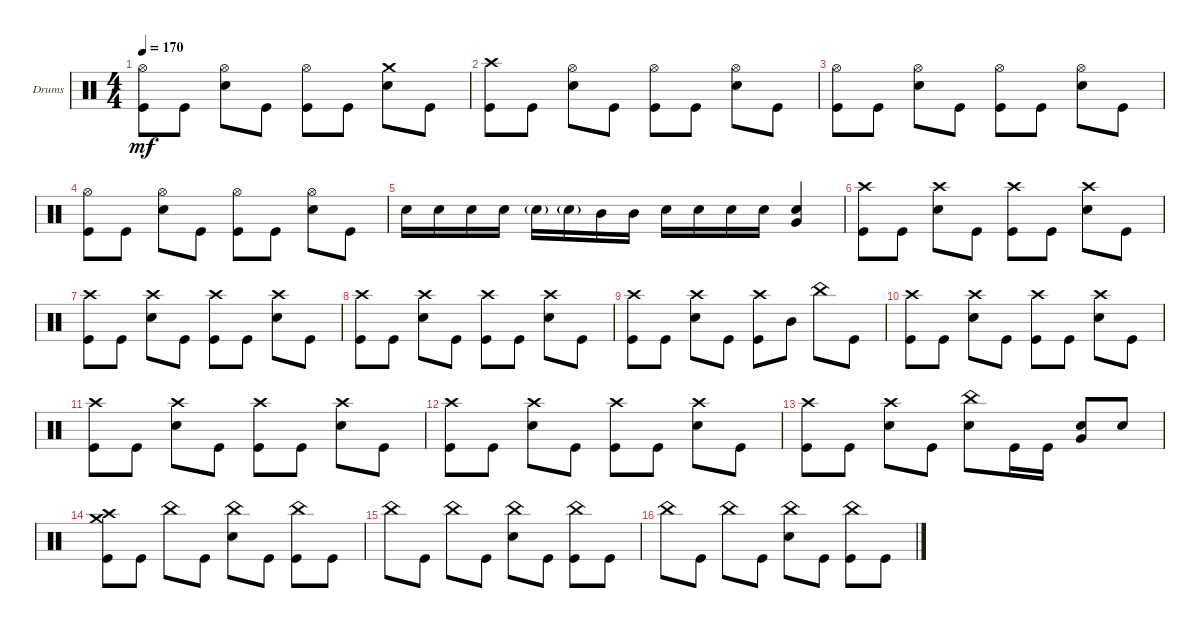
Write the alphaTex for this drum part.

\defaultSystemsLayout 4
\bracketExtendMode groupsimilarinstruments
\firstSystemTrackNameOrientation horizontal
\otherSystemsTrackNameOrientation horizontal
\track ("Drumkit" "Drums") {instrument percussion}
\staff {score}
\articulation defaults
\ts (4 4)
\tempo 170
\clef neutral
\ks c
("Kick (hit)" "Hi-Hat (open)").8{dy mf} "Kick (hit)".8 ("Snare (hit) 2" "Hi-Hat (open)").8 "Kick (hit)".8 ("Kick (hit)" "Hi-Hat (open)").8 "Kick (hit)".8 ("Snare (hit) 2" "Crash medium (hit)").8 "Kick (hit)".8 |
("Kick (hit)" "Crash high (hit)").8 "Kick (hit)".8 ("Snare (hit) 2" "Hi-Hat (open)").8 "Kick (hit)".8 ("Kick (hit)" "Hi-Hat (open)").8 "Kick (hit)".8 ("Snare (hit) 2" "Hi-Hat (open)").8 "Kick (hit)".8 |
("Kick (hit)" "Hi-Hat (open)").8 "Kick (hit)".8 ("Snare (hit) 2" "Hi-Hat (open)").8 "Kick (hit)".8 ("Kick (hit)" "Hi-Hat (open)").8 "Kick (hit)".8 ("Snare (hit) 2" "Hi-Hat (open)").8 "Kick (hit)".8 |
("Kick (hit)" "Hi-Hat (open)").8 "Kick (hit)".8 ("Snare (hit) 2" "Hi-Hat (open)").8 "Kick (hit)".8 ("Kick (hit)" "Hi-Hat (open)").8 "Kick (hit)".8 ("Snare (hit) 2" "Hi-Hat (open)").8 "Kick (hit)".8 |
"Snare (hit) 2".16 "Snare (hit) 2".16 "Snare (hit) 2".16 "Snare (hit) 2".16 "Snare (hit) 2"{g}.16 "Snare (hit) 2"{g}.16 "Mid Tom (hit)".16 "Mid Tom (hit)".16 "Snare (hit) 2".16 "Snare (hit) 2".16 "Snare (hit) 2".16 "Snare (hit) 2".16 ("Snare (hit) 2" "Very Low Tom (hit)").4 |
("Kick (hit)" "Crash high (hit)").8 "Kick (hit)".8 ("Snare (hit) 2" "Crash high (hit)").8 "Kick (hit)".8 ("Kick (hit)" "Crash high (hit)").8 "Kick (hit)".8 ("Snare (hit) 2" "Crash high (hit)").8 "Kick (hit)".8 |
("Kick (hit)" "Crash high (hit)").8 "Kick (hit)".8 ("Snare (hit) 2" "Crash high (hit)").8 "Kick (hit)".8 ("Kick (hit)" "Crash high (hit)").8 "Kick (hit)".8 ("Snare (hit) 2" "Crash high (hit)").8 "Kick (hit)".8 |
("Kick (hit)" "Crash high (hit)").8 "Kick (hit)".8 ("Snare (hit) 2" "Crash high (hit)").8 "Kick (hit)".8 ("Kick (hit)" "Crash high (hit)").8 "Kick (hit)".8 ("Snare (hit) 2" "Crash high (hit)").8 "Kick (hit)".8 |
("Kick (hit)" "Crash high (hit)").8 "Kick (hit)".8 ("Snare (hit) 2" "Crash high (hit)").8 "Kick (hit)".8 ("Kick (hit)" "Crash high (hit)").8 "Mid Tom (hit)".8 "China (hit)".8 "Kick (hit)".8 |
("Kick (hit)" "Crash high (hit)").8 "Kick (hit)".8 ("Snare (hit) 2" "Crash high (hit)").8 "Kick (hit)".8 ("Kick (hit)" "Crash high (hit)").8 "Kick (hit)".8 ("Snare (hit) 2" "Crash high (hit)").8 "Kick (hit)".8 |
("Kick (hit)" "Crash high (hit)").8 "Kick (hit)".8 ("Snare (hit) 2" "Crash high (hit)").8 "Kick (hit)".8 ("Kick (hit)" "Crash high (hit)").8 "Kick (hit)".8 ("Snare (hit) 2" "Crash high (hit)").8 "Kick (hit)".8 |
("Kick (hit)" "Crash high (hit)").8 "Kick (hit)".8 ("Snare (hit) 2" "Crash high (hit)").8 "Kick (hit)".8 ("Kick (hit)" "Crash high (hit)").8 "Kick (hit)".8 ("Snare (hit) 2" "Crash high (hit)").8 "Kick (hit)".8 |
("Kick (hit)" "Crash high (hit)").8 "Kick (hit)".8 ("Snare (hit) 2" "Crash high (hit)").8 "Kick (hit)".8 ("Snare (hit) 2" "China (hit)").8 "Kick (hit)".16 "Kick (hit)".16 ("Snare (hit) 2" "Very Low Tom (hit)").8 "Snare (hit) 2".8 |
("Kick (hit)" "Crash high (hit)" "Crash medium (hit)").8 "Kick (hit)".8 "China (hit)".8 "Kick (hit)".8 ("Snare (hit) 2" "China (hit)").8 "Kick (hit)".8 ("Kick (hit)" "China (hit)").8 "Kick (hit)".8 |
"China (hit)".8 "Kick (hit)".8 "China (hit)".8 "Kick (hit)".8 ("Snare (hit) 2" "China (hit)").8 "Kick (hit)".8 ("Kick (hit)" "China (hit)").8 "Kick (hit)".8 |
"China (hit)".8 "Kick (hit)".8 "China (hit)".8 "Kick (hit)".8 ("Snare (hit) 2" "China (hit)").8 "Kick (hit)".8 ("Kick (hit)" "China (hit)").8 "Kick (hit)".8
